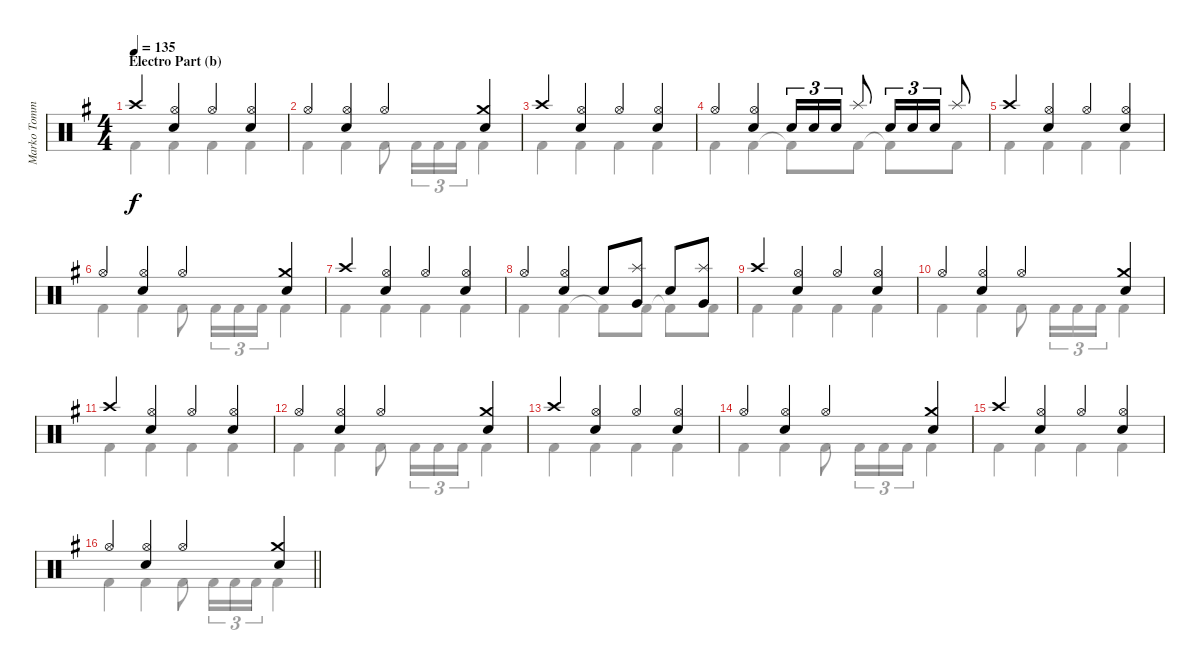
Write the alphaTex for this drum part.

\track ("Marko Tommila (drums)" "Marko Tomm") {instrument percussion}
\staff {score}
\articulation defaults
\voice
\ts (4 4)
\section ("" "Electro Part (b)")
\tempo 135
\clef neutral
\ks eminor "Crash high (hit)".4{dy f}
("Hi-Hat (open)" "Electric Snare (hit)").4 "Hi-Hat (open)".4 ("Hi-Hat (open)" "Electric Snare (hit)").4 |
"Hi-Hat (open)".4 ("Hi-Hat (open)" "Electric Snare (hit)").4 "Hi-Hat (open)".4 ("Crash medium (hit)" "Electric Snare (hit)").4 |
"Crash high (hit)".4 ("Hi-Hat (open)" "Electric Snare (hit)").4 "Hi-Hat (open)".4 ("Hi-Hat (open)" "Electric Snare (hit)").4 |
"Hi-Hat (open)".4 ("Hi-Hat (open)" "Electric Snare (hit)").4 "Electric Snare (hit)".16{tu (3 2)} "Electric Snare (hit)".16{tu (3 2)} "Electric Snare (hit)".16{tu (3 2)} "Splash (hit)".8 "Electric Snare (hit)".16{tu (3 2)} "Electric Snare (hit)".16{tu (3 2)} "Electric Snare (hit)".16{tu (3 2)} "Splash (hit)".8 |
"Crash high (hit)".4 ("Hi-Hat (open)" "Electric Snare (hit)").4 "Hi-Hat (open)".4 ("Hi-Hat (open)" "Electric Snare (hit)").4 |
"Hi-Hat (open)".4 ("Hi-Hat (open)" "Electric Snare (hit)").4 "Hi-Hat (open)".4 ("Crash medium (hit)" "Electric Snare (hit)").4 |
"Crash high (hit)".4 ("Hi-Hat (open)" "Electric Snare (hit)").4 "Hi-Hat (open)".4 ("Hi-Hat (open)" "Electric Snare (hit)").4 |
"Hi-Hat (open)".4 ("Hi-Hat (open)" "Electric Snare (hit)").4 "Electric Snare (hit)".8 ("Splash (hit)" "Very Low Tom (hit)").8 "Electric Snare (hit)".8 ("Splash (hit)" "Very Low Tom (hit)").8 |
"Crash high (hit)".4 ("Hi-Hat (open)" "Electric Snare (hit)").4 "Hi-Hat (open)".4 ("Hi-Hat (open)" "Electric Snare (hit)").4 |
"Hi-Hat (open)".4 ("Hi-Hat (open)" "Electric Snare (hit)").4 "Hi-Hat (open)".4 ("Crash medium (hit)" "Electric Snare (hit)").4 |
"Crash high (hit)".4 ("Hi-Hat (open)" "Electric Snare (hit)").4 "Hi-Hat (open)".4 ("Hi-Hat (open)" "Electric Snare (hit)").4 |
"Hi-Hat (open)".4 ("Hi-Hat (open)" "Electric Snare (hit)").4 "Hi-Hat (open)".4 ("Crash medium (hit)" "Electric Snare (hit)").4 |
"Crash high (hit)".4 ("Hi-Hat (open)" "Electric Snare (hit)").4 "Hi-Hat (open)".4 ("Hi-Hat (open)" "Electric Snare (hit)").4 |
"Hi-Hat (open)".4 ("Hi-Hat (open)" "Electric Snare (hit)").4 "Hi-Hat (open)".4 ("Crash medium (hit)" "Electric Snare (hit)").4 |
"Crash high (hit)".4 ("Hi-Hat (open)" "Electric Snare (hit)").4 "Hi-Hat (open)".4 ("Hi-Hat (open)" "Electric Snare (hit)").4 |
\barLineRight lightlight "Hi-Hat (open)".4
("Hi-Hat (open)" "Electric Snare (hit)").4 "Hi-Hat (open)".4 ("Crash medium (hit)" "Electric Snare (hit)").4
\voice
\clef neutral
\ottava regular
\simile none
\ks eminor "Kick (hit) 2".4{dy f} "Kick (hit) 2".4 "Kick (hit) 2".4 "Kick (hit) 2".4
|
"Kick (hit) 2".4 "Kick (hit) 2".4 "Kick (hit) 2".8 "Kick (hit) 2".16{tu (3 2)} "Kick (hit) 2".16{tu (3 2)} "Kick (hit) 2".16{tu (3 2)} "Kick (hit) 2".4 |
"Kick (hit) 2".4 "Kick (hit) 2".4 "Kick (hit) 2".4 "Kick (hit) 2".4 |
"Kick (hit) 2".4 "Kick (hit) 2".4 "Kick (hit) 2"{t}.8 "Kick (hit) 2".8 "Kick (hit) 2"{t}.8 "Kick (hit) 2".8 |
"Kick (hit) 2".4 "Kick (hit) 2".4 "Kick (hit) 2".4 "Kick (hit) 2".4 |
"Kick (hit) 2".4 "Kick (hit) 2".4 "Kick (hit) 2".8 "Kick (hit) 2".16{tu (3 2)} "Kick (hit) 2".16{tu (3 2)} "Kick (hit) 2".16{tu (3 2)} "Kick (hit) 2".4 |
"Kick (hit) 2".4 "Kick (hit) 2".4 "Kick (hit) 2".4 "Kick (hit) 2".4 |
"Kick (hit) 2".4 "Kick (hit) 2".4 "Kick (hit) 2"{t}.8 "Kick (hit) 2".8 "Kick (hit) 2"{t}.8 "Kick (hit) 2".8 |
"Kick (hit) 2".4 "Kick (hit) 2".4 "Kick (hit) 2".4 "Kick (hit) 2".4 |
"Kick (hit) 2".4 "Kick (hit) 2".4 "Kick (hit) 2".8 "Kick (hit) 2".16{tu (3 2)} "Kick (hit) 2".16{tu (3 2)} "Kick (hit) 2".16{tu (3 2)} "Kick (hit) 2".4 |
"Kick (hit) 2".4 "Kick (hit) 2".4 "Kick (hit) 2".4 "Kick (hit) 2".4 |
"Kick (hit) 2".4 "Kick (hit) 2".4 "Kick (hit) 2".8 "Kick (hit) 2".16{tu (3 2)} "Kick (hit) 2".16{tu (3 2)} "Kick (hit) 2".16{tu (3 2)} "Kick (hit) 2".4 |
"Kick (hit) 2".4 "Kick (hit) 2".4 "Kick (hit) 2".4 "Kick (hit) 2".4 |
"Kick (hit) 2".4 "Kick (hit) 2".4 "Kick (hit) 2".8 "Kick (hit) 2".16{tu (3 2)} "Kick (hit) 2".16{tu (3 2)} "Kick (hit) 2".16{tu (3 2)} "Kick (hit) 2".4 |
"Kick (hit) 2".4 "Kick (hit) 2".4 "Kick (hit) 2".4 "Kick (hit) 2".4 |
\barLineRight lightlight "Kick (hit) 2".4 "Kick (hit) 2".4 "Kick (hit) 2".8 "Kick (hit) 2".16{tu (3 2)} "Kick (hit) 2".16{tu (3 2)} "Kick (hit) 2".16{tu (3 2)} "Kick (hit) 2".4
